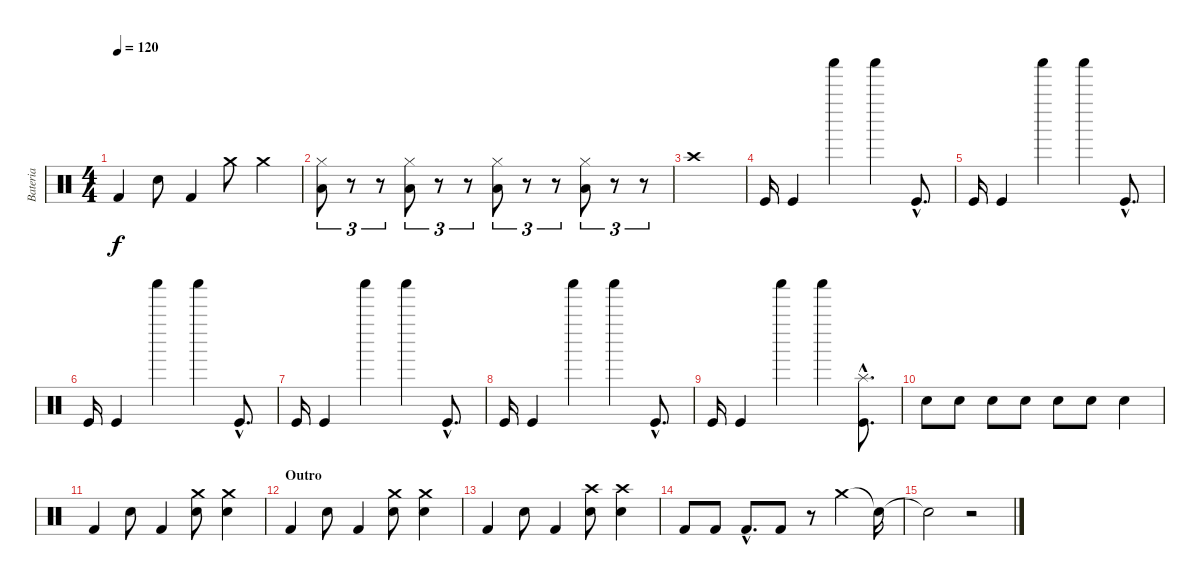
\track ("Bateria" "Bateria") {instrument percussion}
\staff {score}
\articulation defaults
\ts (4 4)
\tempo 120
\clef neutral
\ks c "Kick (hit) 2".4{dy f} "Electric Snare (hit)".8 "Kick (hit) 2".4 "Crash medium (hit)".8 "Crash medium (hit)".4
|
("Hi-Hat (closed)" "Low Floor Tom (hit)").8{tu (3 2)} r.8{tu (3 2)} r.8{tu (3 2)} ("Hi-Hat (closed)" "Low Floor Tom (hit)").8{tu (3 2)} r.8{tu (3 2)} r.8{tu (3 2)} ("Hi-Hat (closed)" "Low Floor Tom (hit)").8{tu (3 2)} r.8{tu (3 2)} r.8{tu (3 2)} ("Hi-Hat (closed)" "Low Floor Tom (hit)").8{tu (3 2)} r.8{tu (3 2)} r.8{tu (3 2)} |
"Crash high (hit)".1 |
"Kick (hit)".16 "Kick (hit)".4 "Shaker (hit)".4 "Shaker (hit)".4 "Kick (hit)"{hac}.8{d} |
"Kick (hit)".16 "Kick (hit)".4 "Shaker (hit)".4 "Shaker (hit)".4 "Kick (hit)"{hac}.8{d} |
"Kick (hit)".16 "Kick (hit)".4 "Shaker (hit)".4 "Shaker (hit)".4 "Kick (hit)"{hac}.8{d} |
"Kick (hit)".16 "Kick (hit)".4 "Shaker (hit)".4 "Shaker (hit)".4 "Kick (hit)"{hac}.8{d} |
"Kick (hit)".16 "Kick (hit)".4 "Shaker (hit)".4 "Shaker (hit)".4 "Kick (hit)"{hac}.8{d} |
"Kick (hit)".16 "Kick (hit)".4 "Shaker (hit)".4 "Shaker (hit)".4 ("Kick (hit)"{hac} "Splash (hit)"{hac}).8{d} |
"Electric Snare (hit)".8 "Electric Snare (hit)".8 "Electric Snare (hit)".8 "Electric Snare (hit)".8 "Electric Snare (hit)".8 "Electric Snare (hit)".8 "Electric Snare (hit)".4 |
"Kick (hit) 2".4 "Electric Snare (hit)".8 "Kick (hit) 2".4 ("Snare (hit) 2" "Crash medium (hit)").8 ("Snare (hit) 2" "Crash medium (hit)").4 |
\section ("" "Outro")
"Kick (hit) 2".4{volume 4} "Electric Snare (hit)".8 "Kick (hit) 2".4 ("Snare (hit) 2" "Crash medium (hit)").8 ("Snare (hit) 2" "Crash medium (hit)").4 |
"Kick (hit) 2".4 "Electric Snare (hit)".8 "Kick (hit) 2".4 ("Snare (hit) 2" "Crash high (hit)").8 ("Snare (hit) 2" "Crash high (hit)").4 |
"Kick (hit) 2".8 "Kick (hit) 2".8 "Kick (hit) 2"{hac}.8{d} "Kick (hit) 2".8 r.8 "Crash medium (hit)".4 "Snare (hit)"{t}.16 |
"Snare (hit)"{t}.2 r.2
